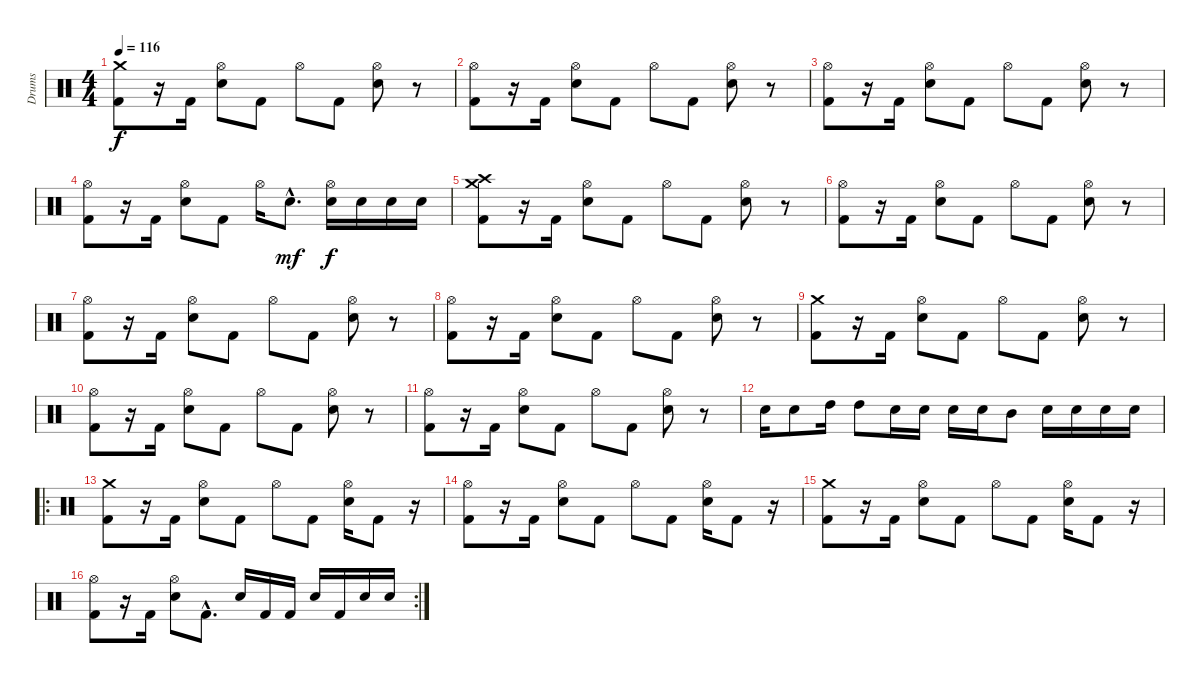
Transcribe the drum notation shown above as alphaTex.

\track ("Drums" "Drums") {instrument percussion}
\staff {score}
\articulation defaults
\ts (4 4)
\tempo 116
\clef neutral
\ks c
("Crash medium (hit)" "Kick (hit) 2").8{dy f} r.16 "Kick (hit) 2".16 ("Hi-Hat (open)" "Electric Snare (hit)").8 "Kick (hit) 2".8 "Hi-Hat (open)".8 "Kick (hit) 2".8 ("Hi-Hat (open)" "Electric Snare (hit)").8 r.8 |
("Hi-Hat (open)" "Kick (hit) 2").8 r.16 "Kick (hit) 2".16 ("Hi-Hat (open)" "Electric Snare (hit)").8 "Kick (hit) 2".8 "Hi-Hat (open)".8 "Kick (hit) 2".8 ("Hi-Hat (open)" "Electric Snare (hit)").8 r.8 |
("Hi-Hat (open)" "Kick (hit) 2").8 r.16 "Kick (hit) 2".16 ("Hi-Hat (open)" "Electric Snare (hit)").8 "Kick (hit) 2".8 "Hi-Hat (open)".8 "Kick (hit) 2".8 ("Hi-Hat (open)" "Electric Snare (hit)").8 r.8 |
("Hi-Hat (open)" "Kick (hit) 2").8 r.16 "Kick (hit) 2".16 ("Hi-Hat (open)" "Electric Snare (hit)").8 "Kick (hit) 2".8 "Hi-Hat (open)".16 "Electric Snare (hit)"{hac}.8{d dy mf} ("Hi-Hat (open)" "Electric Snare (hit)").16{dy f} "Electric Snare (hit)".16 "Electric Snare (hit)".16 "Electric Snare (hit)".16 |
("Crash medium (hit)" "Crash high (hit)" "Kick (hit) 2").8 r.16 "Kick (hit) 2".16 ("Hi-Hat (open)" "Electric Snare (hit)").8 "Kick (hit) 2".8 "Hi-Hat (open)".8 "Kick (hit) 2".8 ("Hi-Hat (open)" "Electric Snare (hit)").8 r.8 |
("Hi-Hat (open)" "Kick (hit) 2").8 r.16 "Kick (hit) 2".16 ("Hi-Hat (open)" "Electric Snare (hit)").8 "Kick (hit) 2".8 "Hi-Hat (open)".8 "Kick (hit) 2".8 ("Hi-Hat (open)" "Electric Snare (hit)").8 r.8 |
("Hi-Hat (open)" "Kick (hit) 2").8 r.16 "Kick (hit) 2".16 ("Hi-Hat (open)" "Electric Snare (hit)").8 "Kick (hit) 2".8 "Hi-Hat (open)".8 "Kick (hit) 2".8 ("Hi-Hat (open)" "Electric Snare (hit)").8 r.8 |
("Hi-Hat (open)" "Kick (hit) 2").8 r.16 "Kick (hit) 2".16 ("Hi-Hat (open)" "Electric Snare (hit)").8 "Kick (hit) 2".8 "Hi-Hat (open)".8 "Kick (hit) 2".8 ("Hi-Hat (open)" "Electric Snare (hit)").8 r.8 |
("Crash medium (hit)" "Kick (hit) 2").8 r.16 "Kick (hit) 2".16 ("Hi-Hat (open)" "Electric Snare (hit)").8 "Kick (hit) 2".8 "Hi-Hat (open)".8 "Kick (hit) 2".8 ("Hi-Hat (open)" "Electric Snare (hit)").8 r.8 |
("Hi-Hat (open)" "Kick (hit) 2").8 r.16 "Kick (hit) 2".16 ("Hi-Hat (open)" "Electric Snare (hit)").8 "Kick (hit) 2".8 "Hi-Hat (open)".8 "Kick (hit) 2".8 ("Hi-Hat (open)" "Electric Snare (hit)").8 r.8 |
("Hi-Hat (open)" "Kick (hit) 2").8 r.16 "Kick (hit) 2".16 ("Hi-Hat (open)" "Electric Snare (hit)").8 "Kick (hit) 2".8 "Hi-Hat (open)".8 "Kick (hit) 2".8 ("Hi-Hat (open)" "Electric Snare (hit)").8 r.8 |
"Electric Snare (hit)".16 "Electric Snare (hit)".8 "High Tom (hit)".16 "High Tom (hit)".8 "Electric Snare (hit)".16 "Electric Snare (hit)".16 "Electric Snare (hit)".16 "Electric Snare (hit)".16 "Mid Tom (hit)".8 "Electric Snare (hit)".16 "Electric Snare (hit)".16 "Electric Snare (hit)".16 "Electric Snare (hit)".16 |
\ro
("Crash medium (hit)" "Kick (hit) 2").8 r.16 "Kick (hit) 2".16 ("Hi-Hat (open)" "Electric Snare (hit)").8 "Kick (hit) 2".8 "Hi-Hat (open)".8 "Kick (hit) 2".8 ("Hi-Hat (open)" "Electric Snare (hit)").16 "Kick (hit) 2".8 r.16 |
("Hi-Hat (open)" "Kick (hit) 2").8 r.16 "Kick (hit) 2".16 ("Hi-Hat (open)" "Electric Snare (hit)").8 "Kick (hit) 2".8 "Hi-Hat (open)".8 "Kick (hit) 2".8 ("Hi-Hat (open)" "Electric Snare (hit)").16 "Kick (hit) 2".8 r.16 |
("Crash medium (hit)" "Kick (hit) 2").8 r.16 "Kick (hit) 2".16 ("Hi-Hat (open)" "Electric Snare (hit)").8 "Kick (hit) 2".8 "Hi-Hat (open)".8 "Kick (hit) 2".8 ("Hi-Hat (open)" "Electric Snare (hit)").16 "Kick (hit) 2".8 r.16 |
\rc 2
("Hi-Hat (open)" "Kick (hit) 2").8 r.16 "Kick (hit) 2".16 ("Hi-Hat (open)" "Electric Snare (hit)").8 "Kick (hit) 2"{hac}.8{d} "Electric Snare (hit)".16 "Kick (hit) 2".16 "Kick (hit) 2".16 "Electric Snare (hit)".16 "Kick (hit) 2".16 "Electric Snare (hit)".16 "Electric Snare (hit)".16
